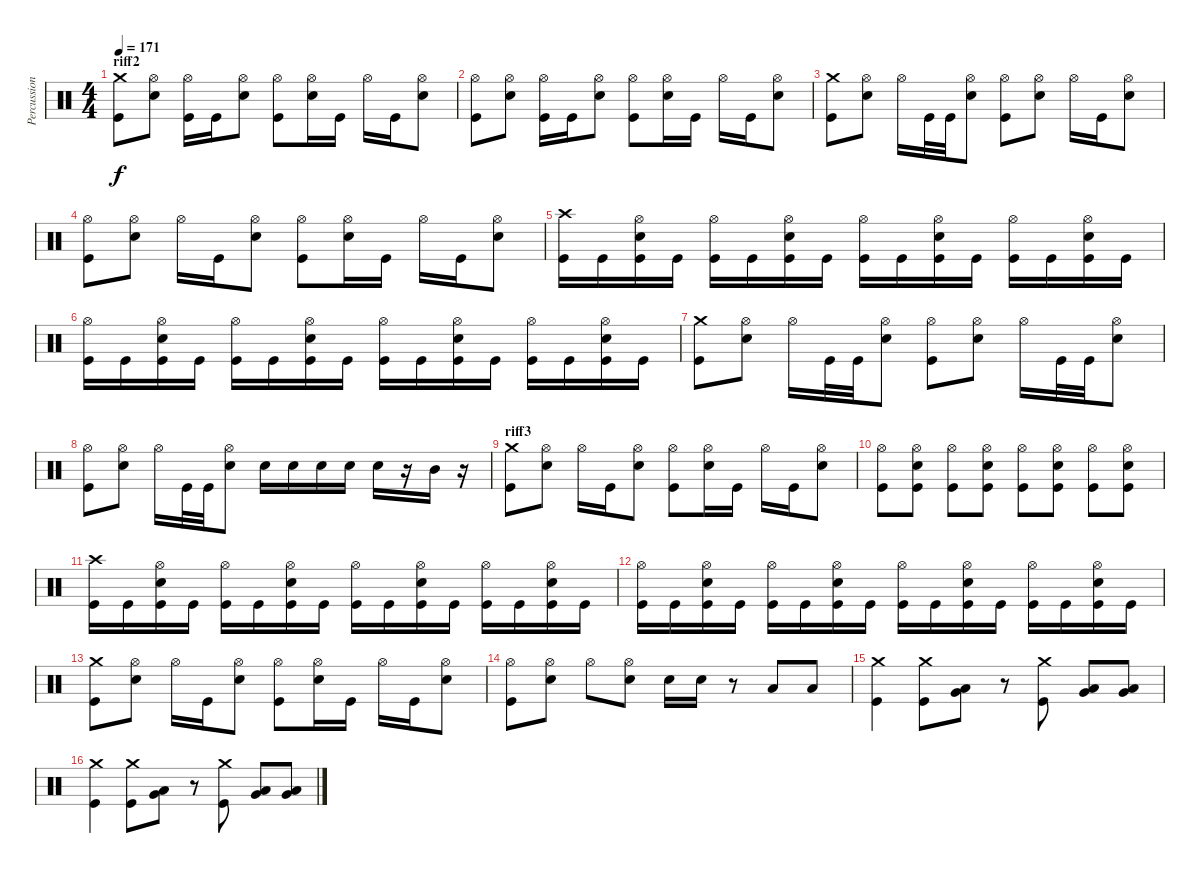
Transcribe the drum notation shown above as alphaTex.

\track ("Percussion" "Percussion") {instrument percussion}
\staff {score}
\articulation defaults
\ts (4 4)
\section ("" "riff2")
\tempo 171
\clef neutral
\ks c
("Kick (hit)" "Crash medium (hit)").8{dy f} ("Hi-Hat (open)" "Snare (hit) 2").8 ("Kick (hit)" "Hi-Hat (open)").16 "Kick (hit)".16 ("Hi-Hat (open)" "Snare (hit) 2").8 ("Kick (hit)" "Hi-Hat (open)").8 ("Hi-Hat (open)" "Snare (hit) 2").16 "Kick (hit)".16 "Hi-Hat (open)".16 "Kick (hit)".16 ("Hi-Hat (open)" "Snare (hit) 2").8 |
("Kick (hit)" "Hi-Hat (open)").8 ("Hi-Hat (open)" "Snare (hit) 2").8 ("Kick (hit)" "Hi-Hat (open)").16 "Kick (hit)".16 ("Hi-Hat (open)" "Snare (hit) 2").8 ("Kick (hit)" "Hi-Hat (open)").8 ("Hi-Hat (open)" "Snare (hit) 2").16 "Kick (hit)".16 "Hi-Hat (open)".16 "Kick (hit)".16 ("Hi-Hat (open)" "Snare (hit) 2").8 |
("Kick (hit)" "Crash medium (hit)").8 ("Hi-Hat (open)" "Snare (hit) 2").8 "Hi-Hat (open)".16 "Kick (hit)".32 "Kick (hit)".32 ("Hi-Hat (open)" "Snare (hit) 2").8 ("Kick (hit)" "Hi-Hat (open)").8 ("Hi-Hat (open)" "Snare (hit) 2").8 "Hi-Hat (open)".16 "Kick (hit)".16 ("Hi-Hat (open)" "Snare (hit) 2").8 |
("Kick (hit)" "Hi-Hat (open)").8 ("Hi-Hat (open)" "Snare (hit) 2").8 "Hi-Hat (open)".16 "Kick (hit)".16 ("Hi-Hat (open)" "Snare (hit) 2").8 ("Kick (hit)" "Hi-Hat (open)").8 ("Hi-Hat (open)" "Snare (hit) 2").16 "Kick (hit)".16 "Hi-Hat (open)".16 "Kick (hit)".16 ("Hi-Hat (open)" "Snare (hit) 2").8 |
("Kick (hit)" "Crash high (hit)").16 "Kick (hit)".16 ("Kick (hit)" "Hi-Hat (open)" "Snare (hit) 2").16 "Kick (hit)".16 ("Kick (hit)" "Hi-Hat (open)").16 "Kick (hit)".16 ("Kick (hit)" "Hi-Hat (open)" "Snare (hit) 2").16 "Kick (hit)".16 ("Kick (hit)" "Hi-Hat (open)").16 "Kick (hit)".16 ("Kick (hit)" "Hi-Hat (open)" "Snare (hit) 2").16 "Kick (hit)".16 ("Kick (hit)" "Hi-Hat (open)").16 "Kick (hit)".16 ("Kick (hit)" "Hi-Hat (open)" "Snare (hit) 2").16 "Kick (hit)".16 |
("Kick (hit)" "Hi-Hat (open)").16 "Kick (hit)".16 ("Kick (hit)" "Hi-Hat (open)" "Snare (hit) 2").16 "Kick (hit)".16 ("Kick (hit)" "Hi-Hat (open)").16 "Kick (hit)".16 ("Kick (hit)" "Hi-Hat (open)" "Snare (hit) 2").16 "Kick (hit)".16 ("Kick (hit)" "Hi-Hat (open)").16 "Kick (hit)".16 ("Kick (hit)" "Hi-Hat (open)" "Snare (hit) 2").16 "Kick (hit)".16 ("Kick (hit)" "Hi-Hat (open)").16 "Kick (hit)".16 ("Kick (hit)" "Hi-Hat (open)" "Snare (hit) 2").16 "Kick (hit)".16 |
("Kick (hit)" "Crash medium (hit)").8 ("Hi-Hat (open)" "Snare (hit) 2").8 "Hi-Hat (open)".16 "Kick (hit)".32 "Kick (hit)".32 ("Hi-Hat (open)" "Snare (hit) 2").8 ("Kick (hit)" "Hi-Hat (open)").8 ("Hi-Hat (open)" "Snare (hit) 2").8 "Hi-Hat (open)".16 "Kick (hit)".32 "Kick (hit)".32 ("Hi-Hat (open)" "Snare (hit) 2").8 |
("Kick (hit)" "Hi-Hat (open)").8 ("Hi-Hat (open)" "Snare (hit) 2").8 "Hi-Hat (open)".16 "Kick (hit)".32 "Kick (hit)".32 ("Hi-Hat (open)" "Snare (hit) 2").8 "Snare (hit) 2".16 "Snare (hit) 2".16 "Snare (hit) 2".16 "Snare (hit) 2".16 "Snare (hit) 2".16 r.16 "Mid Tom (hit)".16 r.16 |
\section ("" "riff3")
("Kick (hit)" "Crash medium (hit)").8 ("Hi-Hat (open)" "Snare (hit) 2").8 "Hi-Hat (open)".16 "Kick (hit)".16 ("Hi-Hat (open)" "Snare (hit) 2").8 ("Kick (hit)" "Hi-Hat (open)").8 ("Hi-Hat (open)" "Snare (hit) 2").16 "Kick (hit)".16 "Hi-Hat (open)".16 "Kick (hit)".16 ("Hi-Hat (open)" "Snare (hit) 2").8 |
("Kick (hit)" "Hi-Hat (open)").8 ("Kick (hit)" "Hi-Hat (open)" "Snare (hit) 2").8 ("Kick (hit)" "Hi-Hat (open)").8 ("Kick (hit)" "Hi-Hat (open)" "Snare (hit) 2").8 ("Kick (hit)" "Hi-Hat (open)").8 ("Kick (hit)" "Hi-Hat (open)" "Snare (hit) 2").8 ("Kick (hit)" "Hi-Hat (open)").8 ("Kick (hit)" "Hi-Hat (open)" "Snare (hit) 2").8 |
("Kick (hit)" "Crash high (hit)").16 "Kick (hit)".16 ("Kick (hit)" "Hi-Hat (open)" "Snare (hit) 2").16 "Kick (hit)".16 ("Kick (hit)" "Hi-Hat (open)").16 "Kick (hit)".16 ("Kick (hit)" "Hi-Hat (open)" "Snare (hit) 2").16 "Kick (hit)".16 ("Kick (hit)" "Hi-Hat (open)").16 "Kick (hit)".16 ("Kick (hit)" "Hi-Hat (open)" "Snare (hit) 2").16 "Kick (hit)".16 ("Kick (hit)" "Hi-Hat (open)").16 "Kick (hit)".16 ("Kick (hit)" "Hi-Hat (open)" "Snare (hit) 2").16 "Kick (hit)".16 |
("Kick (hit)" "Hi-Hat (open)").16 "Kick (hit)".16 ("Kick (hit)" "Hi-Hat (open)" "Snare (hit) 2").16 "Kick (hit)".16 ("Kick (hit)" "Hi-Hat (open)").16 "Kick (hit)".16 ("Kick (hit)" "Hi-Hat (open)" "Snare (hit) 2").16 "Kick (hit)".16 ("Kick (hit)" "Hi-Hat (open)").16 "Kick (hit)".16 ("Kick (hit)" "Hi-Hat (open)" "Snare (hit) 2").16 "Kick (hit)".16 ("Kick (hit)" "Hi-Hat (open)").16 "Kick (hit)".16 ("Kick (hit)" "Hi-Hat (open)" "Snare (hit) 2").16 "Kick (hit)".16 |
("Kick (hit)" "Crash medium (hit)").8 ("Hi-Hat (open)" "Snare (hit) 2").8 "Hi-Hat (open)".16 "Kick (hit)".16 ("Hi-Hat (open)" "Snare (hit) 2").8 ("Kick (hit)" "Hi-Hat (open)").8 ("Hi-Hat (open)" "Snare (hit) 2").16 "Kick (hit)".16 "Hi-Hat (open)".16 "Kick (hit)".16 ("Hi-Hat (open)" "Snare (hit) 2").8 |
("Kick (hit)" "Hi-Hat (open)").8 ("Hi-Hat (open)" "Snare (hit) 2").8 "Hi-Hat (open)".8 ("Hi-Hat (open)" "Snare (hit) 2").8 "Snare (hit) 2".16 "Snare (hit) 2".16 r.8 "Low Tom (hit)".8 "Low Tom (hit)".8 |
("Kick (hit)" "Crash medium (hit)").4 ("Kick (hit)" "Crash medium (hit)").8 ("Low Tom (hit)" "Very Low Tom (hit)").8 r.8 ("Kick (hit)" "Crash medium (hit)").8 ("Low Tom (hit)" "Very Low Tom (hit)").8 ("Low Tom (hit)" "Very Low Tom (hit)").8 |
("Kick (hit)" "Crash medium (hit)").4 ("Kick (hit)" "Crash medium (hit)").8 ("Low Tom (hit)" "Very Low Tom (hit)").8 r.8 ("Kick (hit)" "Crash medium (hit)").8 ("Low Tom (hit)" "Very Low Tom (hit)").8 ("Low Tom (hit)" "Very Low Tom (hit)").8
